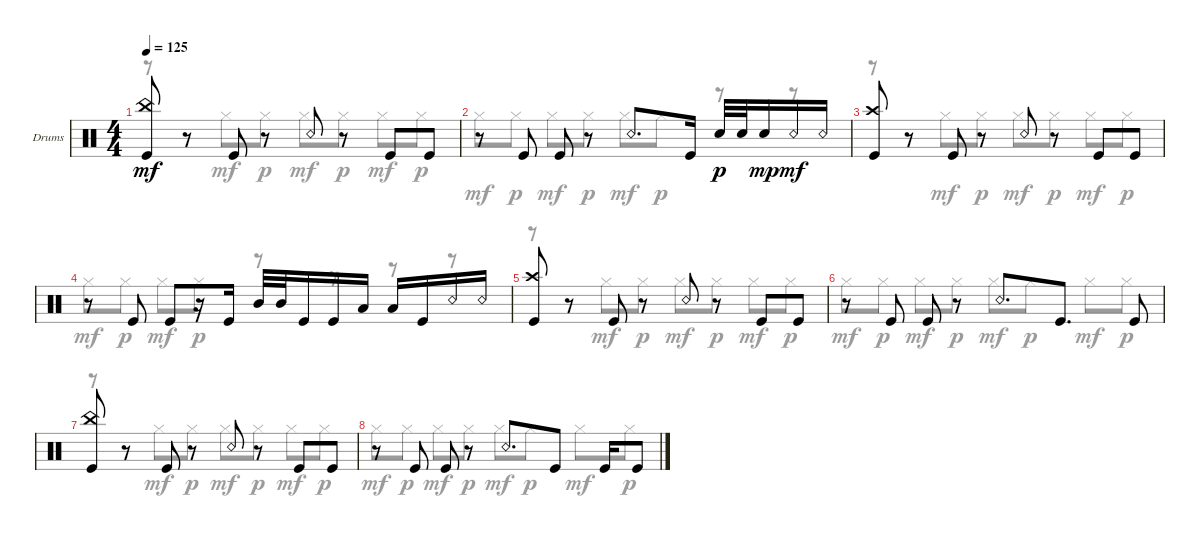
\defaultSystemsLayout 4
\bracketExtendMode groupsimilarinstruments
\firstSystemTrackNameOrientation horizontal
\otherSystemsTrackNameOrientation horizontal
\track ("Drumkit" "Drums") {instrument percussion}
\staff {score}
\articulation defaults
\voice
\ts (4 4)
\tempo 125
\clef neutral
\ks c
("Kick (hit)" "China (hit)").8{dy mf} r.8 "Kick (hit)".8 r.8 "Snare (rim shot)".8 r.8 "Kick (hit)".8 "Kick (hit)".8 |
r.8 "Kick (hit)".8 "Kick (hit)".8 r.8 "Snare (rim shot)".8{d} "Kick (hit)".16 "Snare (hit) 2".32{dy p} "Snare (hit) 2".32 "Snare (hit) 2".16{dy mp} "Snare (rim shot)".16{dy mf} "Snare (rim shot)".16 |
("Kick (hit)" "Crash high (hit)").8 r.8 "Kick (hit)".8 r.8 "Snare (rim shot)".8 r.8 "Kick (hit)".8 "Kick (hit)".8 |
r.8 "Kick (hit)".8 "Kick (hit)".8 r.16 "Kick (hit)".16 "Mid Tom (hit)".32 "Mid Tom (hit)".32 "Kick (hit)".16 "Kick (hit)".16 "Low Tom (hit)".16 "Low Tom (hit)".16 "Kick (hit)".16 "Snare (rim shot)".16 "Snare (rim shot)".16 |
("Kick (hit)" "Crash high (hit)").8 r.8 "Kick (hit)".8 r.8 "Snare (rim shot)".8 r.8 "Kick (hit)".8 "Kick (hit)".8 |
r.8 "Kick (hit)".8 "Kick (hit)".8 r.8 "Snare (rim shot)".8{d} "Kick (hit)".8{d} "Kick (hit)".8 |
("Kick (hit)" "China (hit)").8 r.8 "Kick (hit)".8 r.8 "Snare (rim shot)".8 r.8 "Kick (hit)".8 "Kick (hit)".8 |
r.8 "Kick (hit)".8 "Kick (hit)".8 r.8 "Snare (rim shot)".8{d} "Kick (hit)".8 "Kick (hit)".16 "Kick (hit)".8
\voice
\clef neutral
\ottava regular
\simile none
\ks c
r.8{dy p} r.8 "Hi-Hat (closed)".8{dy mf} "Hi-Hat (closed)".8{dy p} "Hi-Hat (closed)".8{dy mf} "Hi-Hat (closed)".8{dy p} "Hi-Hat (closed)".8{dy mf} "Hi-Hat (closed)".8{dy p} |
"Hi-Hat (closed)".8{dy mf} "Hi-Hat (closed)".8{dy p} "Hi-Hat (closed)".8{dy mf} "Hi-Hat (closed)".8{dy p} "Hi-Hat (closed)".8{dy mf} "Hi-Hat (closed)".8{dy p} r.8 r.8 |
r.8 r.8 "Hi-Hat (closed)".8{dy mf} "Hi-Hat (closed)".8{dy p} "Hi-Hat (closed)".8{dy mf} "Hi-Hat (closed)".8{dy p} "Hi-Hat (closed)".8{dy mf} "Hi-Hat (closed)".8{dy p} |
"Hi-Hat (closed)".8{dy mf} "Hi-Hat (closed)".8{dy p} "Hi-Hat (closed)".8{dy mf} "Hi-Hat (closed)".8{dy p} r.8 r.8 r.8 r.8 |
r.8 r.8 "Hi-Hat (closed)".8{dy mf} "Hi-Hat (closed)".8{dy p} "Hi-Hat (closed)".8{dy mf} "Hi-Hat (closed)".8{dy p} "Hi-Hat (closed)".8{dy mf} "Hi-Hat (closed)".8{dy p} |
"Hi-Hat (closed)".8{dy mf} "Hi-Hat (closed)".8{dy p} "Hi-Hat (closed)".8{dy mf} "Hi-Hat (closed)".8{dy p} "Hi-Hat (closed)".8{dy mf} "Hi-Hat (closed)".8{dy p} "Hi-Hat (closed)".8{dy mf} "Hi-Hat (closed)".8{dy p} |
r.8 r.8 "Hi-Hat (closed)".8{dy mf} "Hi-Hat (closed)".8{dy p} "Hi-Hat (closed)".8{dy mf} "Hi-Hat (closed)".8{dy p} "Hi-Hat (closed)".8{dy mf} "Hi-Hat (closed)".8{dy p} |
"Hi-Hat (closed)".8{dy mf} "Hi-Hat (closed)".8{dy p} "Hi-Hat (closed)".8{dy mf} "Hi-Hat (closed)".8{dy p} "Hi-Hat (closed)".8{dy mf} "Hi-Hat (closed)".8{dy p} "Hi-Hat (closed)".8{dy mf} "Hi-Hat (closed)".8{dy p}
